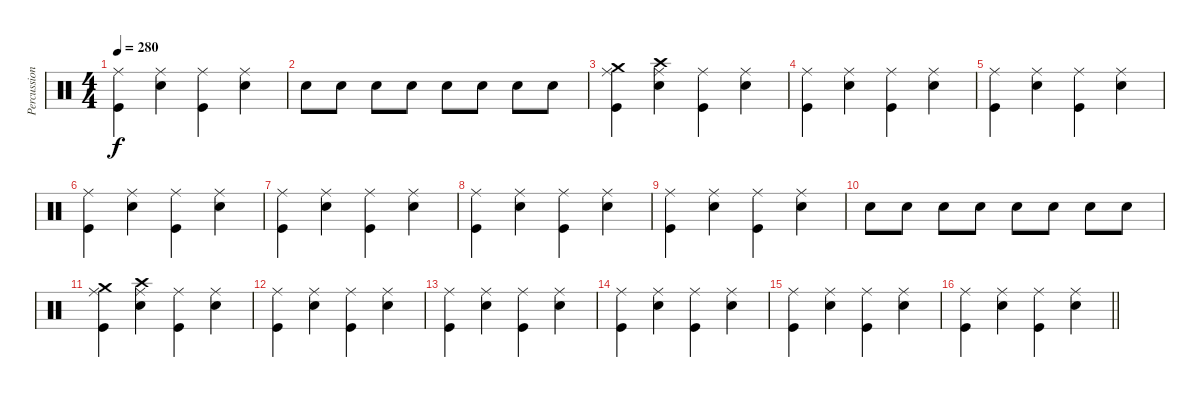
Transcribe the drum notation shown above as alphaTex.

\track ("Percussion" "Percussion") {instrument percussion}
\staff {score}
\articulation defaults
\ts (4 4)
\tempo 280
\clef neutral
\ks c
("Ride (middle)" "Kick (hit)").4{dy f} ("Ride (middle)" "Snare (hit) 2").4 ("Ride (middle)" "Kick (hit)").4 ("Ride (middle)" "Snare (hit) 2").4 |
"Snare (hit) 2".8 "Snare (hit) 2".8 "Snare (hit) 2".8 "Snare (hit) 2".8 "Snare (hit) 2".8 "Snare (hit) 2".8 "Snare (hit) 2".8 "Snare (hit) 2".8 |
("Crash medium (hit)" "Ride (middle)" "Kick (hit)").4 ("Crash high (hit)" "Ride (middle)" "Snare (hit) 2").4 ("Ride (middle)" "Kick (hit)").4 ("Ride (middle)" "Snare (hit) 2").4 |
("Ride (middle)" "Kick (hit)").4 ("Ride (middle)" "Snare (hit) 2").4 ("Ride (middle)" "Kick (hit)").4 ("Ride (middle)" "Snare (hit) 2").4 |
("Ride (middle)" "Kick (hit)").4 ("Ride (middle)" "Snare (hit) 2").4 ("Ride (middle)" "Kick (hit)").4 ("Ride (middle)" "Snare (hit) 2").4 |
("Ride (middle)" "Kick (hit)").4 ("Ride (middle)" "Snare (hit) 2").4 ("Ride (middle)" "Kick (hit)").4 ("Ride (middle)" "Snare (hit) 2").4 |
("Ride (middle)" "Kick (hit)").4 ("Ride (middle)" "Snare (hit) 2").4 ("Ride (middle)" "Kick (hit)").4 ("Ride (middle)" "Snare (hit) 2").4 |
("Ride (middle)" "Kick (hit)").4 ("Ride (middle)" "Snare (hit) 2").4 ("Ride (middle)" "Kick (hit)").4 ("Ride (middle)" "Snare (hit) 2").4 |
("Ride (middle)" "Kick (hit)").4 ("Ride (middle)" "Snare (hit) 2").4 ("Ride (middle)" "Kick (hit)").4 ("Ride (middle)" "Snare (hit) 2").4 |
"Snare (hit) 2".8 "Snare (hit) 2".8 "Snare (hit) 2".8 "Snare (hit) 2".8 "Snare (hit) 2".8 "Snare (hit) 2".8 "Snare (hit) 2".8 "Snare (hit) 2".8 |
("Crash medium (hit)" "Ride (middle)" "Kick (hit)").4 ("Crash high (hit)" "Ride (middle)" "Snare (hit) 2").4 ("Ride (middle)" "Kick (hit)").4 ("Ride (middle)" "Snare (hit) 2").4 |
("Ride (middle)" "Kick (hit)").4 ("Ride (middle)" "Snare (hit) 2").4 ("Ride (middle)" "Kick (hit)").4 ("Ride (middle)" "Snare (hit) 2").4 |
("Ride (middle)" "Kick (hit)").4 ("Ride (middle)" "Snare (hit) 2").4 ("Ride (middle)" "Kick (hit)").4 ("Ride (middle)" "Snare (hit) 2").4 |
("Ride (middle)" "Kick (hit)").4 ("Ride (middle)" "Snare (hit) 2").4 ("Ride (middle)" "Kick (hit)").4 ("Ride (middle)" "Snare (hit) 2").4 |
("Ride (middle)" "Kick (hit)").4 ("Ride (middle)" "Snare (hit) 2").4 ("Ride (middle)" "Kick (hit)").4 ("Ride (middle)" "Snare (hit) 2").4 |
\barLineRight lightlight
("Ride (middle)" "Kick (hit)").4 ("Ride (middle)" "Snare (hit) 2").4 ("Ride (middle)" "Kick (hit)").4 ("Ride (middle)" "Snare (hit) 2").4
